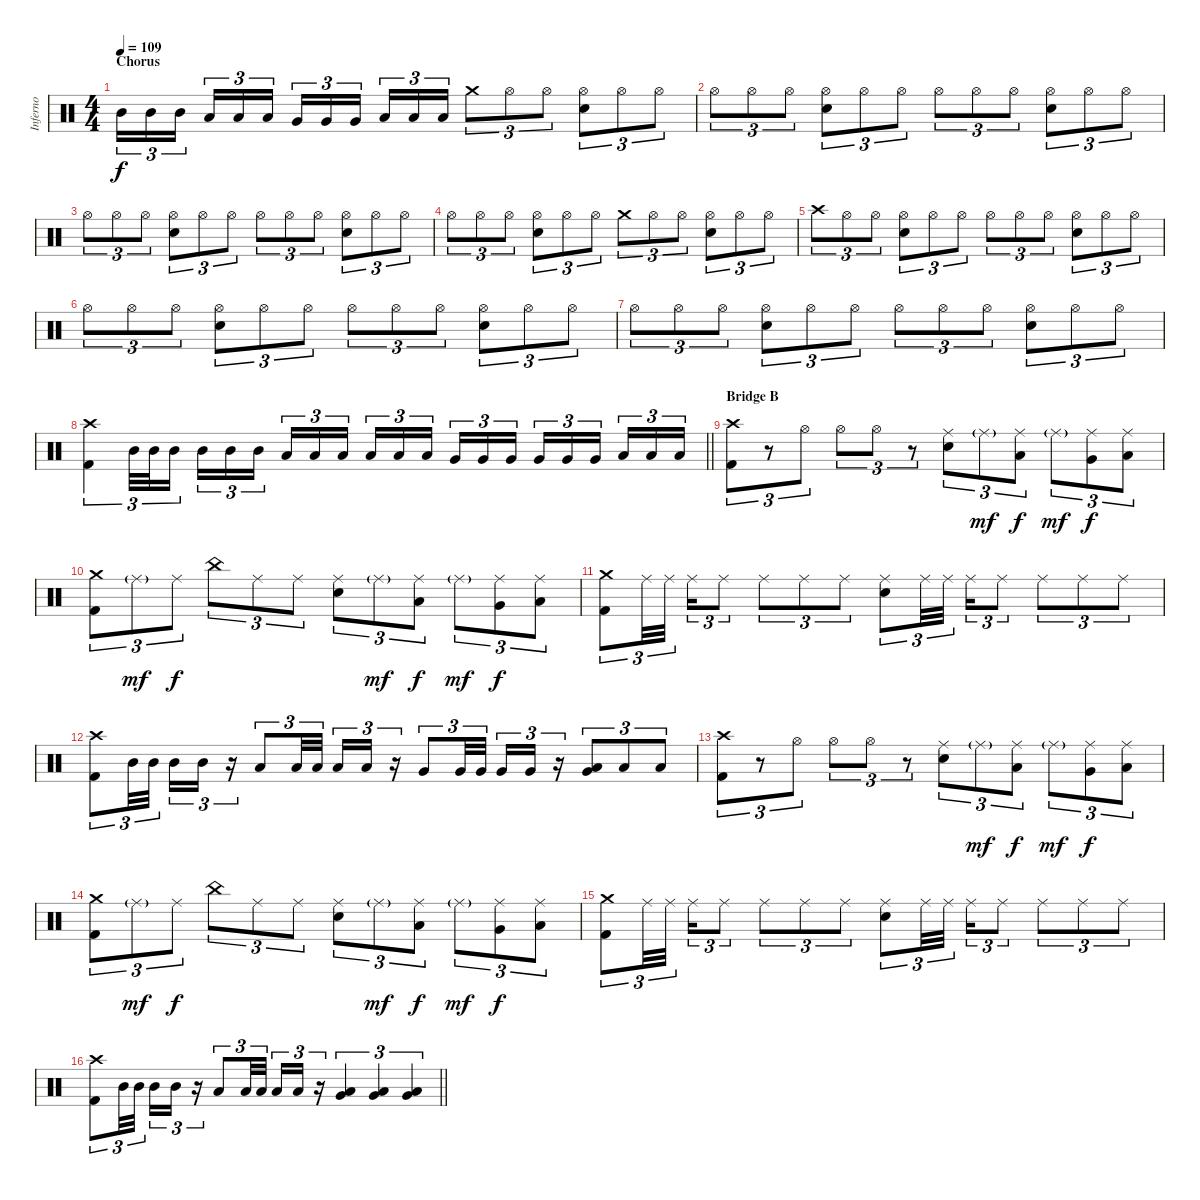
\track ("Inferno" "Inferno") {instrument percussion}
\staff {score}
\articulation defaults
\ts (4 4)
\section ("" "Chorus")
\tempo 109
\clef neutral
\ks c "Mid Tom (hit)".16{tu (3 2) dy f} "Mid Tom (hit)".16{tu (3 2)} "Mid Tom (hit)".16{tu (3 2) beam splitsecondary} "Low Tom (hit)".16{tu (3 2)} "Low Tom (hit)".16{tu (3 2)} "Low Tom (hit)".16{tu (3 2)} "Very Low Tom (hit)".16{tu (3 2)} "Very Low Tom (hit)".16{tu (3 2)} "Very Low Tom (hit)".16{tu (3 2) beam splitsecondary} "Low Floor Tom (hit)".16{tu (3 2)} "Low Floor Tom (hit)".16{tu (3 2)} "Low Floor Tom (hit)".16{tu (3 2)} "Crash medium (hit)".8{tu (3 2)} "Hi-Hat (open)".8{tu (3 2)} "Hi-Hat (open)".8{tu (3 2)}
("Hi-Hat (open)" "Snare (hit) 2").8{tu (3 2)} "Hi-Hat (open)".8{tu (3 2)} "Hi-Hat (open)".8{tu (3 2)} |
"Hi-Hat (open)".8{tu (3 2)} "Hi-Hat (open)".8{tu (3 2)} "Hi-Hat (open)".8{tu (3 2)} ("Hi-Hat (open)" "Snare (hit) 2").8{tu (3 2)} "Hi-Hat (open)".8{tu (3 2)} "Hi-Hat (open)".8{tu (3 2)} "Hi-Hat (open)".8{tu (3 2)} "Hi-Hat (open)".8{tu (3 2)} "Hi-Hat (open)".8{tu (3 2)} ("Hi-Hat (open)" "Snare (hit) 2").8{tu (3 2)} "Hi-Hat (open)".8{tu (3 2)} "Hi-Hat (open)".8{tu (3 2)} |
"Hi-Hat (open)".8{tu (3 2)} "Hi-Hat (open)".8{tu (3 2)} "Hi-Hat (open)".8{tu (3 2)} ("Hi-Hat (open)" "Snare (hit) 2").8{tu (3 2)} "Hi-Hat (open)".8{tu (3 2)} "Hi-Hat (open)".8{tu (3 2)} "Hi-Hat (open)".8{tu (3 2)} "Hi-Hat (open)".8{tu (3 2)} "Hi-Hat (open)".8{tu (3 2)} ("Hi-Hat (open)" "Snare (hit) 2").8{tu (3 2)} "Hi-Hat (open)".8{tu (3 2)} "Hi-Hat (open)".8{tu (3 2)} |
"Hi-Hat (open)".8{tu (3 2)} "Hi-Hat (open)".8{tu (3 2)} "Hi-Hat (open)".8{tu (3 2)} ("Hi-Hat (open)" "Snare (hit) 2").8{tu (3 2)} "Hi-Hat (open)".8{tu (3 2)} "Hi-Hat (open)".8{tu (3 2)} "Crash medium (hit)".8{tu (3 2)} "Hi-Hat (open)".8{tu (3 2)} "Hi-Hat (open)".8{tu (3 2)} ("Hi-Hat (open)" "Snare (hit) 2").8{tu (3 2)} "Hi-Hat (open)".8{tu (3 2)} "Hi-Hat (open)".8{tu (3 2)} |
"Crash high (hit)".8{tu (3 2)} "Hi-Hat (open)".8{tu (3 2)} "Hi-Hat (open)".8{tu (3 2)} ("Hi-Hat (open)" "Snare (hit) 2").8{tu (3 2)} "Hi-Hat (open)".8{tu (3 2)} "Hi-Hat (open)".8{tu (3 2)} "Hi-Hat (open)".8{tu (3 2)} "Hi-Hat (open)".8{tu (3 2)} "Hi-Hat (open)".8{tu (3 2)} ("Hi-Hat (open)" "Snare (hit) 2").8{tu (3 2)} "Hi-Hat (open)".8{tu (3 2)} "Hi-Hat (open)".8{tu (3 2)} |
"Hi-Hat (open)".8{tu (3 2)} "Hi-Hat (open)".8{tu (3 2)} "Hi-Hat (open)".8{tu (3 2)} ("Hi-Hat (open)" "Snare (hit) 2").8{tu (3 2)} "Hi-Hat (open)".8{tu (3 2)} "Hi-Hat (open)".8{tu (3 2)} "Hi-Hat (open)".8{tu (3 2)} "Hi-Hat (open)".8{tu (3 2)} "Hi-Hat (open)".8{tu (3 2)} ("Hi-Hat (open)" "Snare (hit) 2").8{tu (3 2)} "Hi-Hat (open)".8{tu (3 2)} "Hi-Hat (open)".8{tu (3 2)} |
"Hi-Hat (open)".8{tu (3 2)} "Hi-Hat (open)".8{tu (3 2)} "Hi-Hat (open)".8{tu (3 2)} ("Hi-Hat (open)" "Snare (hit) 2").8{tu (3 2)} "Hi-Hat (open)".8{tu (3 2)} "Hi-Hat (open)".8{tu (3 2)} "Hi-Hat (open)".8{tu (3 2)} "Hi-Hat (open)".8{tu (3 2)} "Hi-Hat (open)".8{tu (3 2)} ("Hi-Hat (open)" "Snare (hit) 2").8{tu (3 2)} "Hi-Hat (open)".8{tu (3 2)} "Hi-Hat (open)".8{tu (3 2)} |
\barLineRight lightlight
("Crash high (hit)" "Kick (hit) 2").4{tu (3 2)} "Mid Tom (hit)".32{tu (3 2)} "Mid Tom (hit)".32{tu (3 2)} "Mid Tom (hit)".16{tu (3 2)} "Mid Tom (hit)".16{tu (3 2)} "Mid Tom (hit)".16{tu (3 2)} "Mid Tom (hit)".16{tu (3 2) beam splitsecondary} "Low Tom (hit)".16{tu (3 2)} "Low Tom (hit)".16{tu (3 2)} "Low Tom (hit)".16{tu (3 2)} "Low Tom (hit)".16{tu (3 2)} "Low Tom (hit)".16{tu (3 2)} "Low Tom (hit)".16{tu (3 2) beam splitsecondary} "Very Low Tom (hit)".16{tu (3 2)} "Very Low Tom (hit)".16{tu (3 2)} "Very Low Tom (hit)".16{tu (3 2)} "Very Low Tom (hit)".16{tu (3 2)} "Very Low Tom (hit)".16{tu (3 2)} "Very Low Tom (hit)".16{tu (3 2) beam splitsecondary} "Low Floor Tom (hit)".16{tu (3 2)} "Low Floor Tom (hit)".16{tu (3 2)} "Low Floor Tom (hit)".16{tu (3 2)} |
\section ("" "Bridge B")
("Crash high (hit)" "Kick (hit) 2").8{tu (3 2)} r.8{tu (3 2)} "Hi-Hat (open)".8{tu (3 2)} "Hi-Hat (open)".8{tu (3 2)} "Hi-Hat (open)".8{tu (3 2)} r.8{tu (3 2)} ("Ride (middle)" "Snare (hit) 2").8{tu (3 2)} "Ride (middle)"{g}.8{tu (3 2) dy mf} ("Ride (middle)" "Low Tom (hit)").8{tu (3 2) dy f} "Ride (middle)"{g}.8{tu (3 2) dy mf} ("Ride (middle)" "Very Low Tom (hit)").8{tu (3 2) dy f} ("Ride (middle)" "Low Floor Tom (hit)").8{tu (3 2)} |
("Crash medium (hit)" "Kick (hit) 2").8{tu (3 2)} "Ride (middle)"{g}.8{tu (3 2) dy mf} "Ride (middle)".8{tu (3 2) dy f} "China (hit)".8{tu (3 2)} "Ride (middle)".8{tu (3 2)} "Ride (middle)".8{tu (3 2)} ("Ride (middle)" "Snare (hit) 2").8{tu (3 2)} "Ride (middle)"{g}.8{tu (3 2) dy mf} ("Ride (middle)" "Low Tom (hit)").8{tu (3 2) dy f} "Ride (middle)"{g}.8{tu (3 2) dy mf} ("Ride (middle)" "Very Low Tom (hit)").8{tu (3 2) dy f} ("Ride (middle)" "Low Floor Tom (hit)").8{tu (3 2)} |
("Crash medium (hit)" "Kick (hit) 2").8{tu (3 2)} "Ride (middle)".32{tu (3 2)} "Ride (middle)".32{tu (3 2) beam splitsecondary} "Ride (middle)".16{tu (3 2)} "Ride (middle)".8{tu (3 2)} "Ride (middle)".8{tu (3 2)} "Ride (middle)".8{tu (3 2)} "Ride (middle)".8{tu (3 2)} ("Ride (middle)" "Snare (hit) 2").8{tu (3 2)} "Ride (middle)".32{tu (3 2)} "Ride (middle)".32{tu (3 2) beam splitsecondary} "Ride (middle)".16{tu (3 2)} "Ride (middle)".8{tu (3 2)} "Ride (middle)".8{tu (3 2)} "Ride (middle)".8{tu (3 2)} "Ride (middle)".8{tu (3 2)} |
("Crash high (hit)" "Kick (hit) 2").8{tu (3 2)} "Mid Tom (hit)".32{tu (3 2)} "Mid Tom (hit)".32{tu (3 2) beam splitsecondary} "Mid Tom (hit)".16{tu (3 2)} "Mid Tom (hit)".16{tu (3 2)} r.16{tu (3 2)} "Low Tom (hit)".8{tu (3 2)} "Low Tom (hit)".32{tu (3 2)} "Low Tom (hit)".32{tu (3 2) beam splitsecondary} "Low Tom (hit)".16{tu (3 2)} "Low Tom (hit)".16{tu (3 2)} r.16{tu (3 2)} "Very Low Tom (hit)".8{tu (3 2)} "Very Low Tom (hit)".32{tu (3 2)} "Very Low Tom (hit)".32{tu (3 2) beam splitsecondary} "Very Low Tom (hit)".16{tu (3 2)} "Very Low Tom (hit)".16{tu (3 2)} r.16{tu (3 2)} ("Very Low Tom (hit)" "Low Floor Tom (hit)").8{tu (3 2)} "Low Floor Tom (hit)".8{tu (3 2)} "Low Floor Tom (hit)".8{tu (3 2)} |
("Crash high (hit)" "Kick (hit) 2").8{tu (3 2)} r.8{tu (3 2)} "Hi-Hat (open)".8{tu (3 2)} "Hi-Hat (open)".8{tu (3 2)} "Hi-Hat (open)".8{tu (3 2)} r.8{tu (3 2)} ("Ride (middle)" "Snare (hit) 2").8{tu (3 2)} "Ride (middle)"{g}.8{tu (3 2) dy mf} ("Ride (middle)" "Low Tom (hit)").8{tu (3 2) dy f} "Ride (middle)"{g}.8{tu (3 2) dy mf} ("Ride (middle)" "Very Low Tom (hit)").8{tu (3 2) dy f} ("Ride (middle)" "Low Floor Tom (hit)").8{tu (3 2)} |
("Crash medium (hit)" "Kick (hit) 2").8{tu (3 2)} "Ride (middle)"{g}.8{tu (3 2) dy mf} "Ride (middle)".8{tu (3 2) dy f} "China (hit)".8{tu (3 2)} "Ride (middle)".8{tu (3 2)} "Ride (middle)".8{tu (3 2)} ("Ride (middle)" "Snare (hit) 2").8{tu (3 2)} "Ride (middle)"{g}.8{tu (3 2) dy mf} ("Ride (middle)" "Low Tom (hit)").8{tu (3 2) dy f} "Ride (middle)"{g}.8{tu (3 2) dy mf} ("Ride (middle)" "Very Low Tom (hit)").8{tu (3 2) dy f} ("Ride (middle)" "Low Floor Tom (hit)").8{tu (3 2)} |
("Crash medium (hit)" "Kick (hit) 2").8{tu (3 2)} "Ride (middle)".32{tu (3 2)} "Ride (middle)".32{tu (3 2) beam splitsecondary} "Ride (middle)".16{tu (3 2)} "Ride (middle)".8{tu (3 2)} "Ride (middle)".8{tu (3 2)} "Ride (middle)".8{tu (3 2)} "Ride (middle)".8{tu (3 2)} ("Ride (middle)" "Snare (hit) 2").8{tu (3 2)} "Ride (middle)".32{tu (3 2)} "Ride (middle)".32{tu (3 2) beam splitsecondary} "Ride (middle)".16{tu (3 2)} "Ride (middle)".8{tu (3 2)} "Ride (middle)".8{tu (3 2)} "Ride (middle)".8{tu (3 2)} "Ride (middle)".8{tu (3 2)} |
\barLineRight lightlight
("Crash high (hit)" "Kick (hit) 2").8{tu (3 2)} "Mid Tom (hit)".32{tu (3 2)} "Mid Tom (hit)".32{tu (3 2) beam splitsecondary} "Mid Tom (hit)".16{tu (3 2)} "Mid Tom (hit)".16{tu (3 2)} r.16{tu (3 2)} "Low Tom (hit)".8{tu (3 2)} "Low Tom (hit)".32{tu (3 2)} "Low Tom (hit)".32{tu (3 2) beam splitsecondary} "Low Tom (hit)".16{tu (3 2)} "Low Tom (hit)".16{tu (3 2)} r.16{tu (3 2)} ("Very Low Tom (hit)" "Low Floor Tom (hit)").4{tu (3 2)} ("Very Low Tom (hit)" "Low Floor Tom (hit)").4{tu (3 2)} ("Very Low Tom (hit)" "Low Floor Tom (hit)").4{tu (3 2)}
